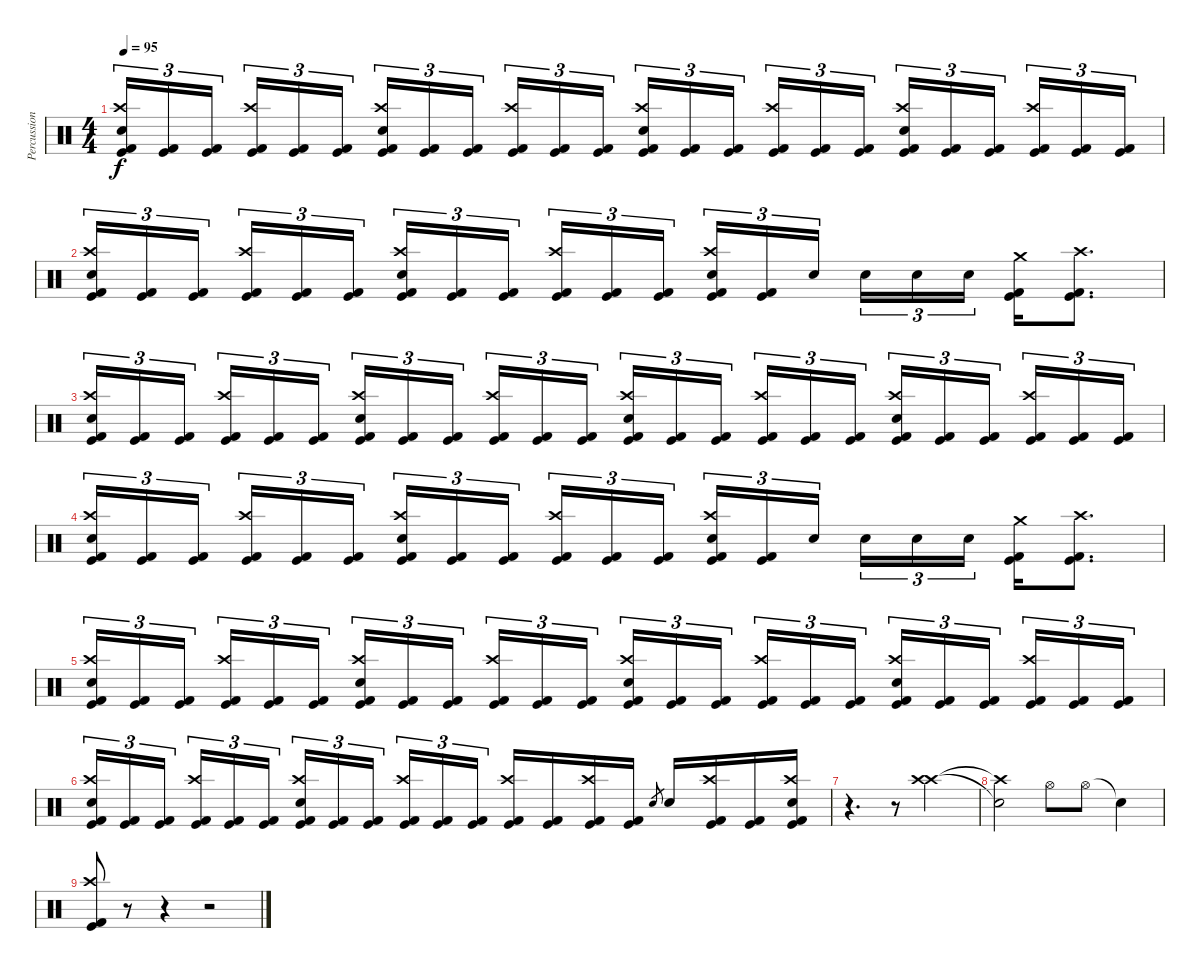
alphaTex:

\track ("Percussion" "Percussion") {instrument percussion}
\staff {score}
\articulation defaults
\ts (4 4)
\tempo 95
\clef neutral
\ks c
("Kick (hit) 2" "Electric Snare (hit)" "Crash high (hit)" "Kick (hit)").16{tu (3 2) dy f} ("Kick (hit) 2" "Kick (hit)").16{tu (3 2)} ("Kick (hit) 2" "Kick (hit)").16{tu (3 2) beam splitsecondary} ("Kick (hit) 2" "Crash high (hit)" "Kick (hit)").16{tu (3 2)} ("Kick (hit) 2" "Kick (hit)").16{tu (3 2)} ("Kick (hit) 2" "Kick (hit)").16{tu (3 2)} ("Kick (hit) 2" "Electric Snare (hit)" "Crash high (hit)" "Kick (hit)").16{tu (3 2)} ("Kick (hit) 2" "Kick (hit)").16{tu (3 2)} ("Kick (hit) 2" "Kick (hit)").16{tu (3 2) beam splitsecondary} ("Kick (hit) 2" "Crash high (hit)" "Kick (hit)").16{tu (3 2)} ("Kick (hit) 2" "Kick (hit)").16{tu (3 2)} ("Kick (hit) 2" "Kick (hit)").16{tu (3 2)} ("Kick (hit) 2" "Electric Snare (hit)" "Crash high (hit)" "Kick (hit)").16{tu (3 2)} ("Kick (hit) 2" "Kick (hit)").16{tu (3 2)} ("Kick (hit) 2" "Kick (hit)").16{tu (3 2) beam splitsecondary} ("Kick (hit) 2" "Crash high (hit)" "Kick (hit)").16{tu (3 2)} ("Kick (hit) 2" "Kick (hit)").16{tu (3 2)} ("Kick (hit) 2" "Kick (hit)").16{tu (3 2)} ("Kick (hit) 2" "Electric Snare (hit)" "Crash high (hit)" "Kick (hit)").16{tu (3 2)} ("Kick (hit) 2" "Kick (hit)").16{tu (3 2)} ("Kick (hit) 2" "Kick (hit)").16{tu (3 2) beam splitsecondary} ("Kick (hit) 2" "Crash high (hit)" "Kick (hit)").16{tu (3 2)} ("Kick (hit) 2" "Kick (hit)").16{tu (3 2)} ("Kick (hit) 2" "Kick (hit)").16{tu (3 2)} |
("Kick (hit) 2" "Electric Snare (hit)" "Crash high (hit)" "Kick (hit)").16{tu (3 2)} ("Kick (hit) 2" "Kick (hit)").16{tu (3 2)} ("Kick (hit) 2" "Kick (hit)").16{tu (3 2) beam splitsecondary} ("Kick (hit) 2" "Crash high (hit)" "Kick (hit)").16{tu (3 2)} ("Kick (hit) 2" "Kick (hit)").16{tu (3 2)} ("Kick (hit) 2" "Kick (hit)").16{tu (3 2)} ("Kick (hit) 2" "Electric Snare (hit)" "Crash high (hit)" "Kick (hit)").16{tu (3 2)} ("Kick (hit) 2" "Kick (hit)").16{tu (3 2)} ("Kick (hit) 2" "Kick (hit)").16{tu (3 2) beam splitsecondary} ("Kick (hit) 2" "Crash high (hit)" "Kick (hit)").16{tu (3 2)} ("Kick (hit) 2" "Kick (hit)").16{tu (3 2)} ("Kick (hit) 2" "Kick (hit)").16{tu (3 2)} ("Kick (hit) 2" "Electric Snare (hit)" "Crash high (hit)" "Kick (hit)").16{tu (3 2)} ("Kick (hit) 2" "Kick (hit)").16{tu (3 2)} "Electric Snare (hit)".16{tu (3 2) beam splitsecondary} "Electric Snare (hit)".16{tu (3 2)} "Electric Snare (hit)".16{tu (3 2)} "Electric Snare (hit)".16{tu (3 2)} ("Kick (hit) 2" "Crash medium (hit)" "Kick (hit)").16 ("Kick (hit) 2" "Crash high (hit)" "Kick (hit)").8{d} |
("Kick (hit) 2" "Electric Snare (hit)" "Crash high (hit)" "Kick (hit)").16{tu (3 2)} ("Kick (hit) 2" "Kick (hit)").16{tu (3 2)} ("Kick (hit) 2" "Kick (hit)").16{tu (3 2) beam splitsecondary} ("Kick (hit) 2" "Crash high (hit)" "Kick (hit)").16{tu (3 2)} ("Kick (hit) 2" "Kick (hit)").16{tu (3 2)} ("Kick (hit) 2" "Kick (hit)").16{tu (3 2)} ("Kick (hit) 2" "Electric Snare (hit)" "Crash high (hit)" "Kick (hit)").16{tu (3 2)} ("Kick (hit) 2" "Kick (hit)").16{tu (3 2)} ("Kick (hit) 2" "Kick (hit)").16{tu (3 2) beam splitsecondary} ("Kick (hit) 2" "Crash high (hit)" "Kick (hit)").16{tu (3 2)} ("Kick (hit) 2" "Kick (hit)").16{tu (3 2)} ("Kick (hit) 2" "Kick (hit)").16{tu (3 2)} ("Kick (hit) 2" "Electric Snare (hit)" "Crash high (hit)" "Kick (hit)").16{tu (3 2)} ("Kick (hit) 2" "Kick (hit)").16{tu (3 2)} ("Kick (hit) 2" "Kick (hit)").16{tu (3 2) beam splitsecondary} ("Kick (hit) 2" "Crash high (hit)" "Kick (hit)").16{tu (3 2)} ("Kick (hit) 2" "Kick (hit)").16{tu (3 2)} ("Kick (hit) 2" "Kick (hit)").16{tu (3 2)} ("Kick (hit) 2" "Electric Snare (hit)" "Crash high (hit)" "Kick (hit)").16{tu (3 2)} ("Kick (hit) 2" "Kick (hit)").16{tu (3 2)} ("Kick (hit) 2" "Kick (hit)").16{tu (3 2) beam splitsecondary} ("Kick (hit) 2" "Crash high (hit)" "Kick (hit)").16{tu (3 2)} ("Kick (hit) 2" "Kick (hit)").16{tu (3 2)} ("Kick (hit) 2" "Kick (hit)").16{tu (3 2)} |
("Kick (hit) 2" "Electric Snare (hit)" "Crash high (hit)" "Kick (hit)").16{tu (3 2)} ("Kick (hit) 2" "Kick (hit)").16{tu (3 2)} ("Kick (hit) 2" "Kick (hit)").16{tu (3 2) beam splitsecondary} ("Kick (hit) 2" "Crash high (hit)" "Kick (hit)").16{tu (3 2)} ("Kick (hit) 2" "Kick (hit)").16{tu (3 2)} ("Kick (hit) 2" "Kick (hit)").16{tu (3 2)} ("Kick (hit) 2" "Electric Snare (hit)" "Crash high (hit)" "Kick (hit)").16{tu (3 2)} ("Kick (hit) 2" "Kick (hit)").16{tu (3 2)} ("Kick (hit) 2" "Kick (hit)").16{tu (3 2) beam splitsecondary} ("Kick (hit) 2" "Crash high (hit)" "Kick (hit)").16{tu (3 2)} ("Kick (hit) 2" "Kick (hit)").16{tu (3 2)} ("Kick (hit) 2" "Kick (hit)").16{tu (3 2)} ("Kick (hit) 2" "Electric Snare (hit)" "Crash high (hit)" "Kick (hit)").16{tu (3 2)} ("Kick (hit) 2" "Kick (hit)").16{tu (3 2)} "Electric Snare (hit)".16{tu (3 2) beam splitsecondary} "Electric Snare (hit)".16{tu (3 2)} "Electric Snare (hit)".16{tu (3 2)} "Electric Snare (hit)".16{tu (3 2)} ("Kick (hit) 2" "Crash medium (hit)" "Kick (hit)").16 ("Kick (hit) 2" "Crash high (hit)" "Kick (hit)").8{d} |
("Kick (hit) 2" "Electric Snare (hit)" "Crash high (hit)" "Kick (hit)").16{tu (3 2)} ("Kick (hit) 2" "Kick (hit)").16{tu (3 2)} ("Kick (hit) 2" "Kick (hit)").16{tu (3 2) beam splitsecondary} ("Kick (hit) 2" "Crash high (hit)" "Kick (hit)").16{tu (3 2)} ("Kick (hit) 2" "Kick (hit)").16{tu (3 2)} ("Kick (hit) 2" "Kick (hit)").16{tu (3 2)} ("Kick (hit) 2" "Electric Snare (hit)" "Crash high (hit)" "Kick (hit)").16{tu (3 2)} ("Kick (hit) 2" "Kick (hit)").16{tu (3 2)} ("Kick (hit) 2" "Kick (hit)").16{tu (3 2) beam splitsecondary} ("Kick (hit) 2" "Crash high (hit)" "Kick (hit)").16{tu (3 2)} ("Kick (hit) 2" "Kick (hit)").16{tu (3 2)} ("Kick (hit) 2" "Kick (hit)").16{tu (3 2)} ("Kick (hit) 2" "Electric Snare (hit)" "Crash high (hit)" "Kick (hit)").16{tu (3 2)} ("Kick (hit) 2" "Kick (hit)").16{tu (3 2)} ("Kick (hit) 2" "Kick (hit)").16{tu (3 2) beam splitsecondary} ("Kick (hit) 2" "Crash high (hit)" "Kick (hit)").16{tu (3 2)} ("Kick (hit) 2" "Kick (hit)").16{tu (3 2)} ("Kick (hit) 2" "Kick (hit)").16{tu (3 2)} ("Kick (hit) 2" "Electric Snare (hit)" "Crash high (hit)" "Kick (hit)").16{tu (3 2)} ("Kick (hit) 2" "Kick (hit)").16{tu (3 2)} ("Kick (hit) 2" "Kick (hit)").16{tu (3 2) beam splitsecondary} ("Kick (hit) 2" "Crash high (hit)" "Kick (hit)").16{tu (3 2)} ("Kick (hit) 2" "Kick (hit)").16{tu (3 2)} ("Kick (hit) 2" "Kick (hit)").16{tu (3 2)} |
("Kick (hit) 2" "Electric Snare (hit)" "Crash high (hit)" "Kick (hit)").16{tu (3 2)} ("Kick (hit) 2" "Kick (hit)").16{tu (3 2)} ("Kick (hit) 2" "Kick (hit)").16{tu (3 2) beam splitsecondary} ("Kick (hit) 2" "Crash high (hit)" "Kick (hit)").16{tu (3 2)} ("Kick (hit) 2" "Kick (hit)").16{tu (3 2)} ("Kick (hit) 2" "Kick (hit)").16{tu (3 2)} ("Kick (hit) 2" "Electric Snare (hit)" "Crash high (hit)" "Kick (hit)").16{tu (3 2)} ("Kick (hit) 2" "Kick (hit)").16{tu (3 2)} ("Kick (hit) 2" "Kick (hit)").16{tu (3 2) beam splitsecondary} ("Kick (hit) 2" "Crash high (hit)" "Kick (hit)").16{tu (3 2)} ("Kick (hit) 2" "Kick (hit)").16{tu (3 2)} ("Kick (hit) 2" "Kick (hit)").16{tu (3 2)} ("Kick (hit) 2" "Crash high (hit)" "Kick (hit)").16 ("Kick (hit) 2" "Kick (hit)").16 ("Kick (hit) 2" "Crash high (hit)" "Kick (hit)").16 ("Kick (hit) 2" "Kick (hit)").16 "Electric Snare (hit)".8{gr} "Electric Snare (hit)".16 ("Kick (hit) 2" "Crash high (hit)" "Kick (hit)").16 ("Kick (hit) 2" "Kick (hit)").16 ("Kick (hit) 2" "Crash high (hit)" "Electric Snare (hit)" "Kick (hit)").16 |
r.4{d} r.8{volume 0} ("Crash high (hit)" "Crash high (hit)").2{volume 16} |
("Crash high (hit)"{t} "Snare (hit)"{t}).2 "Hi-Hat (open)".8 "Hi-Hat (open)".8 "Snare (hit)"{t}.4 |
("Kick (hit) 2" "Crash high (hit)" "Kick (hit)").8 r.8 r.4 r.2
